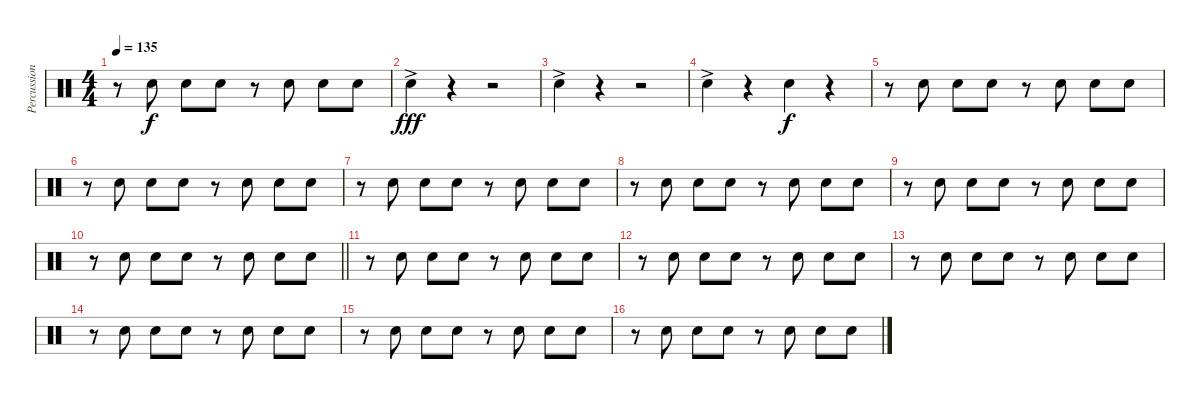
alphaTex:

\track ("Percussions 2" "Percussion") {instrument percussion}
\staff {score}
\articulation defaults
\ts (4 4)
\tempo 135
\clef neutral
\ks c
r.8{dy f} "Snare (hit) 2".8 "Snare (hit) 2".8 "Snare (hit) 2".8 r.8 "Snare (hit) 2".8 "Snare (hit) 2".8 "Snare (hit) 2".8 |
"Snare (hit) 2"{ac}.4{dy fff} r.4 r.2 |
"Snare (hit) 2"{ac}.4 r.4 r.2 |
"Snare (hit) 2"{ac}.4 r.4 "Snare (hit) 2".4{dy f} r.4 |
r.8 "Snare (hit) 2".8 "Snare (hit) 2".8 "Snare (hit) 2".8 r.8 "Snare (hit) 2".8 "Snare (hit) 2".8 "Snare (hit) 2".8 |
r.8 "Snare (hit) 2".8 "Snare (hit) 2".8 "Snare (hit) 2".8 r.8 "Snare (hit) 2".8 "Snare (hit) 2".8 "Snare (hit) 2".8 |
r.8 "Snare (hit) 2".8 "Snare (hit) 2".8 "Snare (hit) 2".8 r.8 "Snare (hit) 2".8 "Snare (hit) 2".8 "Snare (hit) 2".8 |
r.8 "Snare (hit) 2".8 "Snare (hit) 2".8 "Snare (hit) 2".8 r.8 "Snare (hit) 2".8 "Snare (hit) 2".8 "Snare (hit) 2".8 |
r.8 "Snare (hit) 2".8 "Snare (hit) 2".8 "Snare (hit) 2".8 r.8 "Snare (hit) 2".8 "Snare (hit) 2".8 "Snare (hit) 2".8 |
\barLineRight lightlight
r.8 "Snare (hit) 2".8 "Snare (hit) 2".8 "Snare (hit) 2".8 r.8 "Snare (hit) 2".8 "Snare (hit) 2".8 "Snare (hit) 2".8 |
r.8 "Snare (hit) 2".8 "Snare (hit) 2".8 "Snare (hit) 2".8 r.8 "Snare (hit) 2".8 "Snare (hit) 2".8 "Snare (hit) 2".8 |
r.8 "Snare (hit) 2".8 "Snare (hit) 2".8 "Snare (hit) 2".8 r.8 "Snare (hit) 2".8 "Snare (hit) 2".8 "Snare (hit) 2".8 |
r.8 "Snare (hit) 2".8 "Snare (hit) 2".8 "Snare (hit) 2".8 r.8 "Snare (hit) 2".8 "Snare (hit) 2".8 "Snare (hit) 2".8 |
r.8 "Snare (hit) 2".8 "Snare (hit) 2".8 "Snare (hit) 2".8 r.8 "Snare (hit) 2".8 "Snare (hit) 2".8 "Snare (hit) 2".8 |
r.8 "Snare (hit) 2".8 "Snare (hit) 2".8 "Snare (hit) 2".8 r.8 "Snare (hit) 2".8 "Snare (hit) 2".8 "Snare (hit) 2".8 |
r.8 "Snare (hit) 2".8 "Snare (hit) 2".8 "Snare (hit) 2".8 r.8 "Snare (hit) 2".8 "Snare (hit) 2".8 "Snare (hit) 2".8
